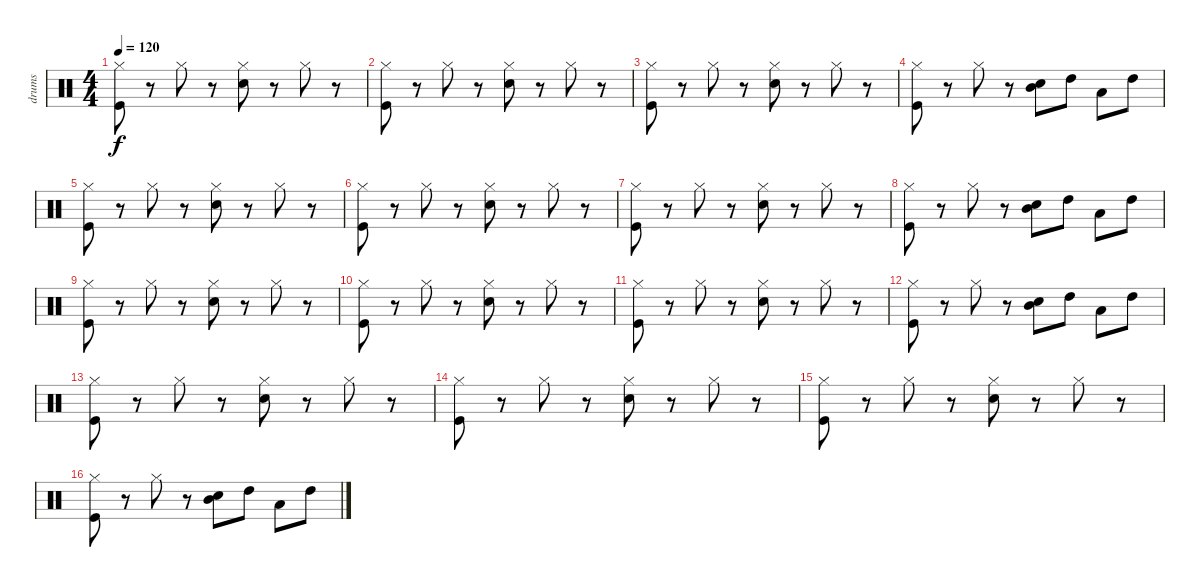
\track ("drums" "drums") {instrument percussion}
\staff {score}
\articulation defaults
\ts (4 4)
\tempo 120
\clef neutral
\ks c
("Hi-Hat (closed)" "Kick (hit)").8{dy f} r.8 "Hi-Hat (closed)".8 r.8 ("Hi-Hat (closed)" "Electric Snare (hit)").8 r.8 "Hi-Hat (closed)".8 r.8 |
("Hi-Hat (closed)" "Kick (hit)").8 r.8 "Hi-Hat (closed)".8 r.8 ("Hi-Hat (closed)" "Electric Snare (hit)").8 r.8 "Hi-Hat (closed)".8 r.8 |
("Hi-Hat (closed)" "Kick (hit)").8 r.8 "Hi-Hat (closed)".8 r.8 ("Hi-Hat (closed)" "Electric Snare (hit)").8 r.8 "Hi-Hat (closed)".8 r.8 |
("Hi-Hat (closed)" "Kick (hit)").8 r.8 "Hi-Hat (closed)".8 r.8 ("Mid Tom (hit)" "Electric Snare (hit)").8 "High Tom (hit)".8 "Low Tom (hit)".8 "High Tom (hit)".8 |
("Hi-Hat (closed)" "Kick (hit)").8 r.8 "Hi-Hat (closed)".8 r.8 ("Hi-Hat (closed)" "Electric Snare (hit)").8 r.8 "Hi-Hat (closed)".8 r.8 |
("Hi-Hat (closed)" "Kick (hit)").8 r.8 "Hi-Hat (closed)".8 r.8 ("Hi-Hat (closed)" "Electric Snare (hit)").8 r.8 "Hi-Hat (closed)".8 r.8 |
("Hi-Hat (closed)" "Kick (hit)").8 r.8 "Hi-Hat (closed)".8 r.8 ("Hi-Hat (closed)" "Electric Snare (hit)").8 r.8 "Hi-Hat (closed)".8 r.8 |
("Hi-Hat (closed)" "Kick (hit)").8 r.8 "Hi-Hat (closed)".8 r.8 ("Mid Tom (hit)" "Electric Snare (hit)").8 "High Tom (hit)".8 "Low Tom (hit)".8 "High Tom (hit)".8 |
("Hi-Hat (closed)" "Kick (hit)").8 r.8 "Hi-Hat (closed)".8 r.8 ("Hi-Hat (closed)" "Electric Snare (hit)").8 r.8 "Hi-Hat (closed)".8 r.8 |
("Hi-Hat (closed)" "Kick (hit)").8 r.8 "Hi-Hat (closed)".8 r.8 ("Hi-Hat (closed)" "Electric Snare (hit)").8 r.8 "Hi-Hat (closed)".8 r.8 |
("Hi-Hat (closed)" "Kick (hit)").8 r.8 "Hi-Hat (closed)".8 r.8 ("Hi-Hat (closed)" "Electric Snare (hit)").8 r.8 "Hi-Hat (closed)".8 r.8 |
("Hi-Hat (closed)" "Kick (hit)").8 r.8 "Hi-Hat (closed)".8 r.8 ("Mid Tom (hit)" "Electric Snare (hit)").8 "High Tom (hit)".8 "Low Tom (hit)".8 "High Tom (hit)".8 |
("Hi-Hat (closed)" "Kick (hit)").8 r.8 "Hi-Hat (closed)".8 r.8 ("Hi-Hat (closed)" "Electric Snare (hit)").8 r.8 "Hi-Hat (closed)".8 r.8 |
("Hi-Hat (closed)" "Kick (hit)").8 r.8 "Hi-Hat (closed)".8 r.8 ("Hi-Hat (closed)" "Electric Snare (hit)").8 r.8 "Hi-Hat (closed)".8 r.8 |
("Hi-Hat (closed)" "Kick (hit)").8 r.8 "Hi-Hat (closed)".8 r.8 ("Hi-Hat (closed)" "Electric Snare (hit)").8 r.8 "Hi-Hat (closed)".8 r.8 |
("Hi-Hat (closed)" "Kick (hit)").8 r.8 "Hi-Hat (closed)".8 r.8 ("Mid Tom (hit)" "Electric Snare (hit)").8 "High Tom (hit)".8 "Low Tom (hit)".8 "High Tom (hit)".8
